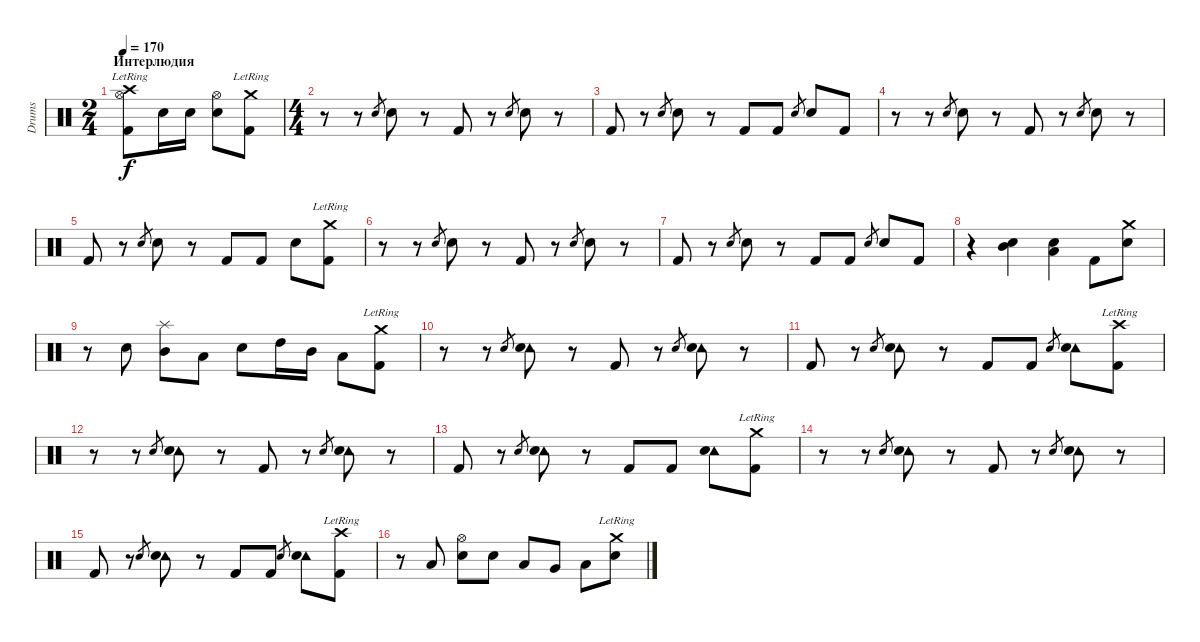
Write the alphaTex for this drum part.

\track ("Drums" "Drums") {instrument percussion}
\staff {score}
\articulation defaults
\ts (2 4)
\section ("" "Интерлюдия")
\tempo 170
\clef neutral
\ks c
("Crash high (hit)"{lr} "Kick (hit) 2" "Hi-Hat (open)").8{dy f} "Electric Snare (hit)".16 "Electric Snare (hit)".16 ("Electric Snare (hit)" "Hi-Hat (open)").8 ("Crash medium (hit)"{lr} "Kick (hit) 2").8 |
\ts (4 4)
r.8 r.8 "Electric Snare (hit)".8{gr} "Electric Snare (hit)".8 r.8 "Kick (hit) 2".8 r.8 "Electric Snare (hit)".8{gr} "Electric Snare (hit)".8 r.8 |
"Kick (hit) 2".8 r.8 "Electric Snare (hit)".8{gr} "Electric Snare (hit)".8 r.8 "Kick (hit) 2".8 "Kick (hit) 2".8 "Electric Snare (hit)".8{gr} "Electric Snare (hit)".8 "Kick (hit) 2".8 |
r.8 r.8 "Electric Snare (hit)".8{gr} "Electric Snare (hit)".8 r.8 "Kick (hit) 2".8 r.8 "Electric Snare (hit)".8{gr} "Electric Snare (hit)".8 r.8 |
"Kick (hit) 2".8 r.8 "Electric Snare (hit)".8{gr} "Electric Snare (hit)".8 r.8 "Kick (hit) 2".8 "Kick (hit) 2".8 "Electric Snare (hit)".8 ("Crash medium (hit)"{lr} "Kick (hit) 2").8 |
r.8 r.8 "Electric Snare (hit)".8{gr} "Electric Snare (hit)".8 r.8 "Kick (hit) 2".8 r.8 "Electric Snare (hit)".8{gr} "Electric Snare (hit)".8 r.8 |
"Kick (hit) 2".8 r.8 "Electric Snare (hit)".8{gr} "Electric Snare (hit)".8 r.8 "Kick (hit) 2".8 "Kick (hit) 2".8 "Electric Snare (hit)".8{gr} "Electric Snare (hit)".8 "Kick (hit) 2".8 |
r.4 ("Mid Tom (hit)" "Electric Snare (hit)").4 ("Low Tom (hit)" "Electric Snare (hit)").4 "Kick (hit) 2".8 ("Crash medium (hit)" "Electric Snare (hit)").8 |
r.8 "Electric Snare (hit)".8 ("Splash (hit)" "Mid Tom (hit)").8 "Low Tom (hit)".8 "Electric Snare (hit)".8 "High Tom (hit)".16 "Mid Tom (hit)".16 "Low Tom (hit)".8 ("Crash medium (hit)"{lr} "Kick (hit) 2").8 |
r.8 r.8 "Electric Snare (hit)".8{gr} ("Tambourine (hit)" "Electric Snare (hit)").8 r.8 "Kick (hit) 2".8 r.8 "Electric Snare (hit)".8{gr} ("Tambourine (hit)" "Electric Snare (hit)").8 r.8 |
"Kick (hit) 2".8 r.8 "Electric Snare (hit)".8{gr} ("Tambourine (hit)" "Electric Snare (hit)").8 r.8 "Kick (hit) 2".8 "Kick (hit) 2".8 "Electric Snare (hit)".8{gr} ("Tambourine (hit)" "Electric Snare (hit)").8 ("Crash high (hit)"{lr} "Kick (hit) 2").8 |
r.8 r.8 "Electric Snare (hit)".8{gr} ("Tambourine (hit)" "Electric Snare (hit)").8 r.8 "Kick (hit) 2".8 r.8 "Electric Snare (hit)".8{gr} ("Tambourine (hit)" "Electric Snare (hit)").8 r.8 |
"Kick (hit) 2".8 r.8 "Electric Snare (hit)".8{gr} ("Tambourine (hit)" "Electric Snare (hit)").8 r.8 "Kick (hit) 2".8 "Kick (hit) 2".8 ("Tambourine (hit)" "Electric Snare (hit)").8 ("Crash medium (hit)"{lr} "Kick (hit) 2").8 |
r.8 r.8 "Electric Snare (hit)".8{gr} ("Tambourine (hit)" "Electric Snare (hit)").8 r.8 "Kick (hit) 2".8 r.8 "Electric Snare (hit)".8{gr} ("Tambourine (hit)" "Electric Snare (hit)").8 r.8 |
"Kick (hit) 2".8 r.8 "Electric Snare (hit)".8{gr} ("Tambourine (hit)" "Electric Snare (hit)").8 r.8 "Kick (hit) 2".8 "Kick (hit) 2".8 "Electric Snare (hit)".8{gr} ("Tambourine (hit)" "Electric Snare (hit)").8 ("Crash high (hit)"{lr} "Kick (hit) 2").8 |
r.8 "Low Tom (hit)".8 ("Electric Snare (hit)" "Hi-Hat (open)").8 "Electric Snare (hit)".8 "Low Tom (hit)".8 "Very Low Tom (hit)".8 "Low Floor Tom (hit)".8 ("Crash medium (hit)"{lr} "Electric Snare (hit)").8
